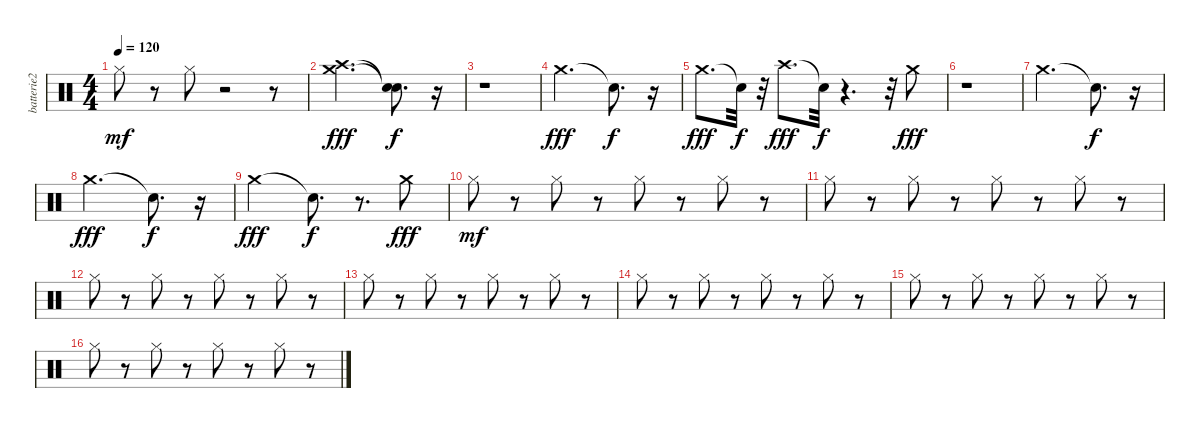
\track ("batterie2" "batterie2") {instrument percussion}
\staff {score}
\articulation defaults
\ts (4 4)
\tempo 120
\clef neutral
\ks c "Hi-Hat (closed)".8{dy mf}
r.8 "Hi-Hat (closed)".8 r.2 r.8 |
("Crash high (hit)" "Crash medium (hit)").2{d dy fff} ("Snare (hit)"{t} "Snare (hit)"{t}).8{d dy f} r.16 |
r.1 |
"Crash medium (hit)".2{d dy fff} "Snare (hit)"{t}.8{d dy f} r.16 |
"Crash medium (hit)".8{d dy fff} "Snare (hit)"{t}.32{dy f} r.32 "Crash high (hit)".8{d dy fff} "Snare (hit)"{t}.32{dy f} r.4{d} r.32 "Crash medium (hit)".8{dy fff} |
r.1 |
"Crash medium (hit)".2{d} "Snare (hit)"{t}.8{d dy f} r.16 |
"Crash medium (hit)".2{d dy fff} "Snare (hit)"{t}.8{d dy f} r.16 |
"Crash medium (hit)".2{dy fff} "Snare (hit)"{t}.8{d dy f} r.8{d} "Crash medium (hit)".8{dy fff} |
"Hi-Hat (closed)".8{dy mf} r.8 "Hi-Hat (closed)".8 r.8 "Hi-Hat (closed)".8 r.8 "Hi-Hat (closed)".8 r.8 |
"Hi-Hat (closed)".8 r.8 "Hi-Hat (closed)".8 r.8 "Hi-Hat (closed)".8 r.8 "Hi-Hat (closed)".8 r.8 |
"Hi-Hat (closed)".8 r.8 "Hi-Hat (closed)".8 r.8 "Hi-Hat (closed)".8 r.8 "Hi-Hat (closed)".8 r.8 |
"Hi-Hat (closed)".8 r.8 "Hi-Hat (closed)".8 r.8 "Hi-Hat (closed)".8 r.8 "Hi-Hat (closed)".8 r.8 |
"Hi-Hat (closed)".8 r.8 "Hi-Hat (closed)".8 r.8 "Hi-Hat (closed)".8 r.8 "Hi-Hat (closed)".8 r.8 |
"Hi-Hat (closed)".8 r.8 "Hi-Hat (closed)".8 r.8 "Hi-Hat (closed)".8 r.8 "Hi-Hat (closed)".8 r.8 |
"Hi-Hat (closed)".8 r.8 "Hi-Hat (closed)".8 r.8 "Hi-Hat (closed)".8 r.8 "Hi-Hat (closed)".8 r.8
